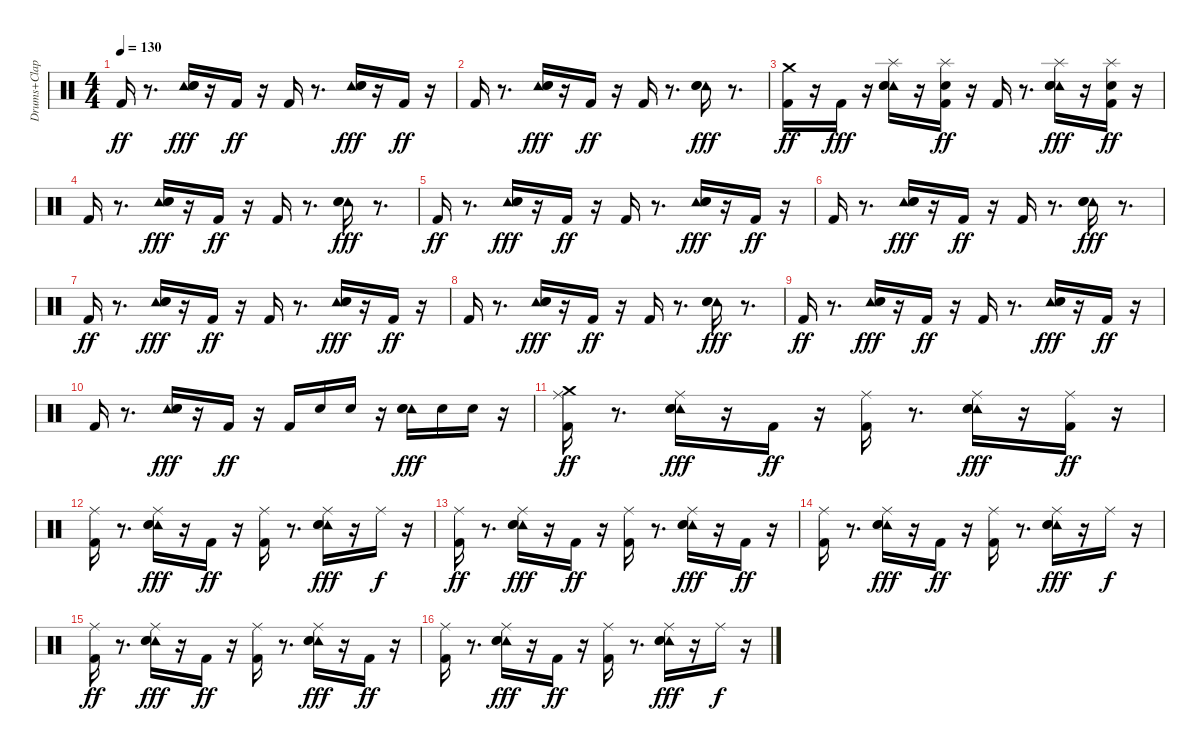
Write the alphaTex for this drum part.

\track ("Drums+Clap" "Drums+Clap") {instrument percussion}
\staff {score}
\articulation defaults
\ts (4 4)
\tempo 130
\clef neutral
\ks c "Kick (hit) 2".16{dy ff}
r.8{d} ("Tambourine (hit)" "Electric Snare (hit)" "Hand Clap (hit)").16{dy fff} r.16 "Kick (hit) 2".16{dy ff} r.16 "Kick (hit) 2".16 r.8{d} ("Tambourine (hit)" "Electric Snare (hit)" "Hand Clap (hit)").16{dy fff} r.16 "Kick (hit) 2".16{dy ff} r.16 |
"Kick (hit) 2".16 r.8{d} ("Tambourine (hit)" "Electric Snare (hit)" "Hand Clap (hit)").16{dy fff} r.16 "Kick (hit) 2".16{dy ff} r.16 "Kick (hit) 2".16 r.8{d} ("Tambourine (hit)" "Electric Snare (hit)" "Hand Clap (hit)").16{dy fff} r.8{d} |
("Crash medium (hit)" "Kick (hit) 2").16{dy ff} r.16 "Kick (hit) 2".16{dy fff} r.16 ("Tambourine (hit)" "Splash (hit)" "Electric Snare (hit)" "Hand Clap (hit)").16 r.16 ("Splash (hit)" "Electric Snare (hit)" "Kick (hit) 2").16{dy ff} r.16 "Kick (hit) 2".16 r.8{d} ("Tambourine (hit)" "Splash (hit)" "Electric Snare (hit)" "Hand Clap (hit)").16{dy fff} r.16 ("Splash (hit)" "Electric Snare (hit)" "Kick (hit) 2").16{dy ff} r.16 |
"Kick (hit) 2".16 r.8{d} ("Tambourine (hit)" "Electric Snare (hit)" "Hand Clap (hit)").16{dy fff} r.16 "Kick (hit) 2".16{dy ff} r.16 "Kick (hit) 2".16 r.8{d} ("Tambourine (hit)" "Electric Snare (hit)" "Hand Clap (hit)").16{dy fff} r.8{d} |
"Kick (hit) 2".16{dy ff} r.8{d} ("Tambourine (hit)" "Electric Snare (hit)" "Hand Clap (hit)").16{dy fff} r.16 "Kick (hit) 2".16{dy ff} r.16 "Kick (hit) 2".16 r.8{d} ("Tambourine (hit)" "Electric Snare (hit)" "Hand Clap (hit)").16{dy fff} r.16 "Kick (hit) 2".16{dy ff} r.16 |
"Kick (hit) 2".16 r.8{d} ("Tambourine (hit)" "Electric Snare (hit)" "Hand Clap (hit)").16{dy fff} r.16 "Kick (hit) 2".16{dy ff} r.16 "Kick (hit) 2".16 r.8{d} ("Tambourine (hit)" "Electric Snare (hit)" "Hand Clap (hit)").16{dy fff} r.8{d} |
"Kick (hit) 2".16{dy ff} r.8{d} ("Tambourine (hit)" "Electric Snare (hit)" "Hand Clap (hit)").16{dy fff} r.16 "Kick (hit) 2".16{dy ff} r.16 "Kick (hit) 2".16 r.8{d} ("Tambourine (hit)" "Electric Snare (hit)" "Hand Clap (hit)").16{dy fff} r.16 "Kick (hit) 2".16{dy ff} r.16 |
"Kick (hit) 2".16 r.8{d} ("Tambourine (hit)" "Electric Snare (hit)" "Hand Clap (hit)").16{dy fff} r.16 "Kick (hit) 2".16{dy ff} r.16 "Kick (hit) 2".16 r.8{d} ("Tambourine (hit)" "Electric Snare (hit)" "Hand Clap (hit)").16{dy fff} r.8{d} |
"Kick (hit) 2".16{dy ff} r.8{d} ("Tambourine (hit)" "Electric Snare (hit)" "Hand Clap (hit)").16{dy fff} r.16 "Kick (hit) 2".16{dy ff} r.16 "Kick (hit) 2".16 r.8{d} ("Tambourine (hit)" "Electric Snare (hit)" "Hand Clap (hit)").16{dy fff} r.16 "Kick (hit) 2".16{dy ff} r.16 |
"Kick (hit) 2".16 r.8{d} ("Tambourine (hit)" "Electric Snare (hit)" "Hand Clap (hit)").16{dy fff} r.16 "Kick (hit) 2".16{dy ff} r.16 "Kick (hit) 2".16 "Electric Snare (hit)".16 "Electric Snare (hit)".16 r.16 ("Tambourine (hit)" "Electric Snare (hit)" "Hand Clap (hit)").16{dy fff} "Electric Snare (hit)".16 "Electric Snare (hit)".16 r.16 |
("Crash medium (hit)" "Ride (middle)" "Kick (hit) 2").16{dy ff} r.8{d} ("Tambourine (hit)" "Ride (middle)" "Electric Snare (hit)" "Hand Clap (hit)").16{dy fff} r.16 "Kick (hit) 2".16{dy ff} r.16 ("Ride (middle)" "Kick (hit) 2").16 r.8{d} ("Tambourine (hit)" "Ride (middle)" "Electric Snare (hit)" "Hand Clap (hit)").16{dy fff} r.16 ("Ride (middle)" "Kick (hit) 2").16{dy ff} r.16 |
("Ride (middle)" "Kick (hit) 2").16 r.8{d} ("Tambourine (hit)" "Ride (middle)" "Electric Snare (hit)" "Hand Clap (hit)").16{dy fff} r.16 "Kick (hit) 2".16{dy ff} r.16 ("Ride (middle)" "Kick (hit) 2").16 r.8{d} ("Tambourine (hit)" "Ride (middle)" "Electric Snare (hit)" "Hand Clap (hit)").16{dy fff} r.16 "Ride (middle)".16{dy f} r.16 |
("Ride (middle)" "Kick (hit) 2").16{dy ff} r.8{d} ("Tambourine (hit)" "Ride (middle)" "Electric Snare (hit)" "Hand Clap (hit)").16{dy fff} r.16 "Kick (hit) 2".16{dy ff} r.16 ("Ride (middle)" "Kick (hit) 2").16 r.8{d} ("Tambourine (hit)" "Ride (middle)" "Electric Snare (hit)" "Hand Clap (hit)").16{dy fff} r.16 "Kick (hit) 2".16{dy ff} r.16 |
("Ride (middle)" "Kick (hit) 2").16 r.8{d} ("Tambourine (hit)" "Ride (middle)" "Electric Snare (hit)" "Hand Clap (hit)").16{dy fff} r.16 "Kick (hit) 2".16{dy ff} r.16 ("Ride (middle)" "Kick (hit) 2").16 r.8{d} ("Tambourine (hit)" "Ride (middle)" "Electric Snare (hit)" "Hand Clap (hit)").16{dy fff} r.16 "Ride (middle)".16{dy f} r.16 |
("Ride (middle)" "Kick (hit) 2").16{dy ff} r.8{d} ("Tambourine (hit)" "Ride (middle)" "Electric Snare (hit)" "Hand Clap (hit)").16{dy fff} r.16 "Kick (hit) 2".16{dy ff} r.16 ("Ride (middle)" "Kick (hit) 2").16 r.8{d} ("Tambourine (hit)" "Ride (middle)" "Electric Snare (hit)" "Hand Clap (hit)").16{dy fff} r.16 "Kick (hit) 2".16{dy ff} r.16 |
("Ride (middle)" "Kick (hit) 2").16 r.8{d} ("Tambourine (hit)" "Ride (middle)" "Electric Snare (hit)" "Hand Clap (hit)").16{dy fff} r.16 "Kick (hit) 2".16{dy ff} r.16 ("Ride (middle)" "Kick (hit) 2").16 r.8{d} ("Tambourine (hit)" "Ride (middle)" "Electric Snare (hit)" "Hand Clap (hit)").16{dy fff} r.16 "Ride (middle)".16{dy f} r.16
